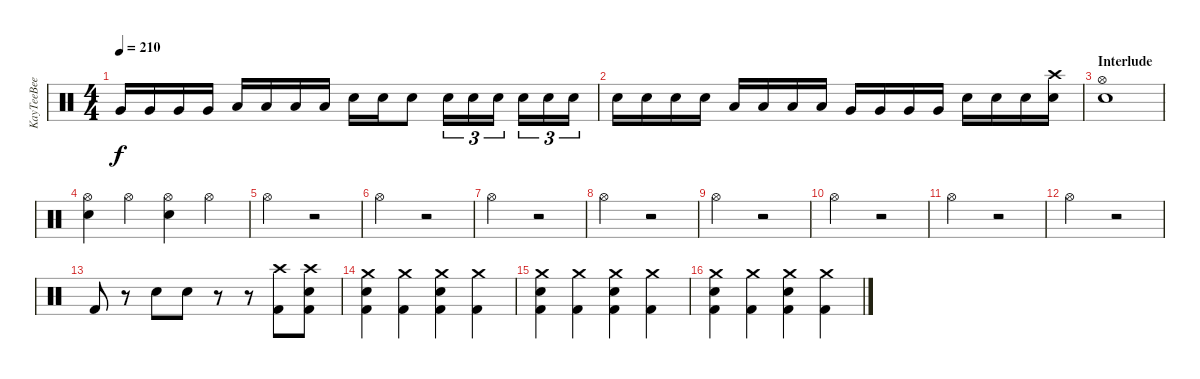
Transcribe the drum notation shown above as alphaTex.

\track ("KayTeeBee" "KayTeeBee") {instrument percussion}
\staff {score}
\articulation defaults
\ts (4 4)
\tempo 210
\clef neutral
\ks c "Very Low Tom (hit)".16{dy f} "Very Low Tom (hit)".16 "Very Low Tom (hit)".16 "Very Low Tom (hit)".16 "Low Floor Tom (hit)".16 "Low Floor Tom (hit)".16 "Low Floor Tom (hit)".16 "Low Floor Tom (hit)".16 "Electric Snare (hit)".16 "Electric Snare (hit)".16 "Electric Snare (hit)".8 "Electric Snare (hit)".16{tu (3 2)} "Electric Snare (hit)".16{tu (3 2)} "Electric Snare (hit)".16{tu (3 2)} "Electric Snare (hit)".16{tu (3 2)} "Electric Snare (hit)".16{tu (3 2)} "Electric Snare (hit)".16{tu (3 2)}
|
"Electric Snare (hit)".16 "Electric Snare (hit)".16 "Electric Snare (hit)".16 "Electric Snare (hit)".16 "Low Tom (hit)".16 "Low Tom (hit)".16 "Low Tom (hit)".16 "Low Tom (hit)".16 "Very Low Tom (hit)".16 "Very Low Tom (hit)".16 "Very Low Tom (hit)".16 "Very Low Tom (hit)".16 "Electric Snare (hit)".16 "Electric Snare (hit)".16 "Electric Snare (hit)".16 ("Electric Snare (hit)" "Crash high (hit)").16 |
\section ("" "Interlude")
("Hi-Hat (open)" "Electric Snare (hit)").1 |
("Hi-Hat (open)" "Electric Snare (hit)").4 "Hi-Hat (open)".4 ("Hi-Hat (open)" "Electric Snare (hit)").4 "Hi-Hat (open)".4 |
"Hi-Hat (open)".2 r.2 |
"Hi-Hat (open)".2 r.2 |
"Hi-Hat (open)".2 r.2 |
"Hi-Hat (open)".2 r.2 |
"Hi-Hat (open)".2 r.2 |
"Hi-Hat (open)".2 r.2 |
"Hi-Hat (open)".2 r.2 |
"Hi-Hat (open)".2 r.2 |
"Kick (hit) 2".8 r.8 "Electric Snare (hit)".8 "Electric Snare (hit)".8 r.8 r.8 ("Kick (hit) 2" "Crash high (hit)").8 ("Electric Snare (hit)" "Kick (hit) 2" "Crash high (hit)").8 |
("Kick (hit) 2" "Electric Snare (hit)" "Crash medium (hit)").4 ("Kick (hit) 2" "Crash medium (hit)").4 ("Kick (hit) 2" "Electric Snare (hit)" "Crash medium (hit)").4 ("Kick (hit) 2" "Crash medium (hit)").4 |
("Kick (hit) 2" "Electric Snare (hit)" "Crash medium (hit)").4 ("Kick (hit) 2" "Crash medium (hit)").4 ("Kick (hit) 2" "Electric Snare (hit)" "Crash medium (hit)").4 ("Kick (hit) 2" "Crash medium (hit)").4 |
("Kick (hit) 2" "Electric Snare (hit)" "Crash medium (hit)").4 ("Kick (hit) 2" "Crash medium (hit)").4 ("Kick (hit) 2" "Electric Snare (hit)" "Crash medium (hit)").4 ("Kick (hit) 2" "Crash medium (hit)").4
